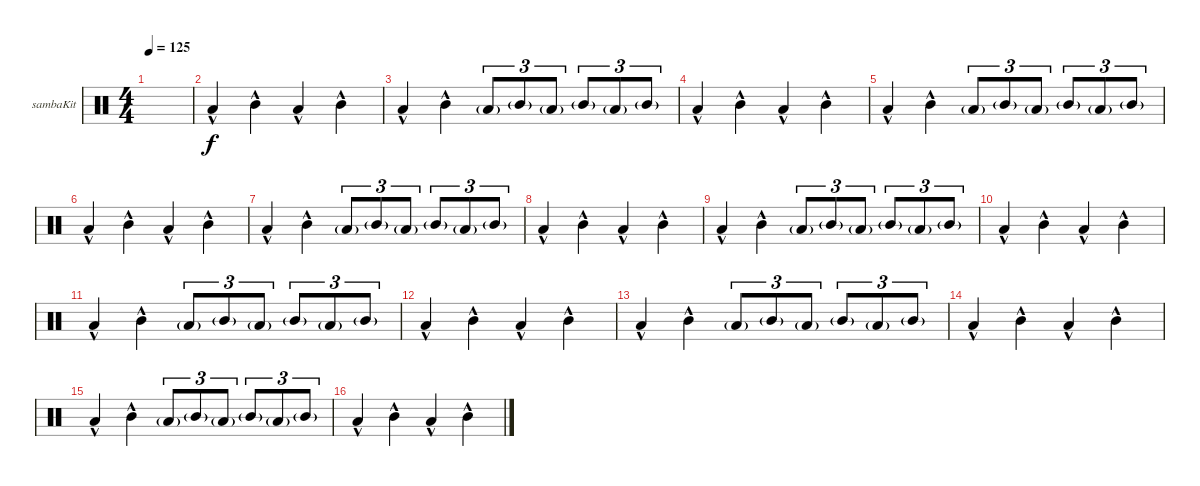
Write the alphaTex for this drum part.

\defaultSystemsLayout 4
\bracketExtendMode groupsimilarinstruments
\firstSystemTrackNameOrientation horizontal
\otherSystemsTrackNameOrientation horizontal
\track ("Kit-Samba" "sambaKit") {instrument percussion}
\staff {score}
\articulation defaults
\ts (4 4)
\tempo 125
\clef neutral
\scale
0.474178
\ks c
|
\scale
0.262911 "Low Tom (hit)"{hac}.4 "Mid Tom (hit)"{hac}.4 "Low Tom (hit)"{hac}.4 "Mid Tom (hit)"{hac}.4 |
"Low Tom (hit)"{hac}.4 "Mid Tom (hit)"{hac}.4 "Low Tom (hit)"{g}.8{tu (3 2)} "Mid Tom (hit)"{g}.8{tu (3 2)} "Low Tom (hit)"{g}.8{tu (3 2)} "Mid Tom (hit)"{g}.8{tu (3 2)} "Low Tom (hit)"{g}.8{tu (3 2)} "Mid Tom (hit)"{g}.8{tu (3 2)} |
"Low Tom (hit)"{hac}.4 "Mid Tom (hit)"{hac}.4 "Low Tom (hit)"{hac}.4 "Mid Tom (hit)"{hac}.4 |
"Low Tom (hit)"{hac}.4 "Mid Tom (hit)"{hac}.4 "Low Tom (hit)"{g}.8{tu (3 2)} "Mid Tom (hit)"{g}.8{tu (3 2)} "Low Tom (hit)"{g}.8{tu (3 2)} "Mid Tom (hit)"{g}.8{tu (3 2)} "Low Tom (hit)"{g}.8{tu (3 2)} "Mid Tom (hit)"{g}.8{tu (3 2)} |
\scale
0.262911 "Low Tom (hit)"{hac}.4 "Mid Tom (hit)"{hac}.4 "Low Tom (hit)"{hac}.4 "Mid Tom (hit)"{hac}.4 |
\scale
0.333333 "Low Tom (hit)"{hac}.4 "Mid Tom (hit)"{hac}.4 "Low Tom (hit)"{g}.8{tu (3 2)} "Mid Tom (hit)"{g}.8{tu (3 2)} "Low Tom (hit)"{g}.8{tu (3 2)} "Mid Tom (hit)"{g}.8{tu (3 2)} "Low Tom (hit)"{g}.8{tu (3 2)} "Mid Tom (hit)"{g}.8{tu (3 2)} |
\scale
0.333333 "Low Tom (hit)"{hac}.4 "Mid Tom (hit)"{hac}.4 "Low Tom (hit)"{hac}.4 "Mid Tom (hit)"{hac}.4 |
"Low Tom (hit)"{hac}.4 "Mid Tom (hit)"{hac}.4 "Low Tom (hit)"{g}.8{tu (3 2)} "Mid Tom (hit)"{g}.8{tu (3 2)} "Low Tom (hit)"{g}.8{tu (3 2)} "Mid Tom (hit)"{g}.8{tu (3 2)} "Low Tom (hit)"{g}.8{tu (3 2)} "Mid Tom (hit)"{g}.8{tu (3 2)} |
\scale
0.333333 "Low Tom (hit)"{hac}.4 "Mid Tom (hit)"{hac}.4 "Low Tom (hit)"{hac}.4 "Mid Tom (hit)"{hac}.4 |
\scale
0.333333 "Low Tom (hit)"{hac}.4 "Mid Tom (hit)"{hac}.4 "Low Tom (hit)"{g}.8{tu (3 2)} "Mid Tom (hit)"{g}.8{tu (3 2)} "Low Tom (hit)"{g}.8{tu (3 2)} "Mid Tom (hit)"{g}.8{tu (3 2)} "Low Tom (hit)"{g}.8{tu (3 2)} "Mid Tom (hit)"{g}.8{tu (3 2)} |
\scale
0.333333 "Low Tom (hit)"{hac}.4 "Mid Tom (hit)"{hac}.4 "Low Tom (hit)"{hac}.4 "Mid Tom (hit)"{hac}.4 |
\scale
0.333333 "Low Tom (hit)"{hac}.4 "Mid Tom (hit)"{hac}.4 "Low Tom (hit)"{g}.8{tu (3 2)} "Mid Tom (hit)"{g}.8{tu (3 2)} "Low Tom (hit)"{g}.8{tu (3 2)} "Mid Tom (hit)"{g}.8{tu (3 2)} "Low Tom (hit)"{g}.8{tu (3 2)} "Mid Tom (hit)"{g}.8{tu (3 2)} |
\scale
0.333333 "Low Tom (hit)"{hac}.4 "Mid Tom (hit)"{hac}.4 "Low Tom (hit)"{hac}.4 "Mid Tom (hit)"{hac}.4 |
\scale
0.333333 "Low Tom (hit)"{hac}.4 "Mid Tom (hit)"{hac}.4 "Low Tom (hit)"{g}.8{tu (3 2)} "Mid Tom (hit)"{g}.8{tu (3 2)} "Low Tom (hit)"{g}.8{tu (3 2)} "Mid Tom (hit)"{g}.8{tu (3 2)} "Low Tom (hit)"{g}.8{tu (3 2)} "Mid Tom (hit)"{g}.8{tu (3 2)} |
\scale
0.333333 "Low Tom (hit)"{hac}.4 "Mid Tom (hit)"{hac}.4 "Low Tom (hit)"{hac}.4 "Mid Tom (hit)"{hac}.4
